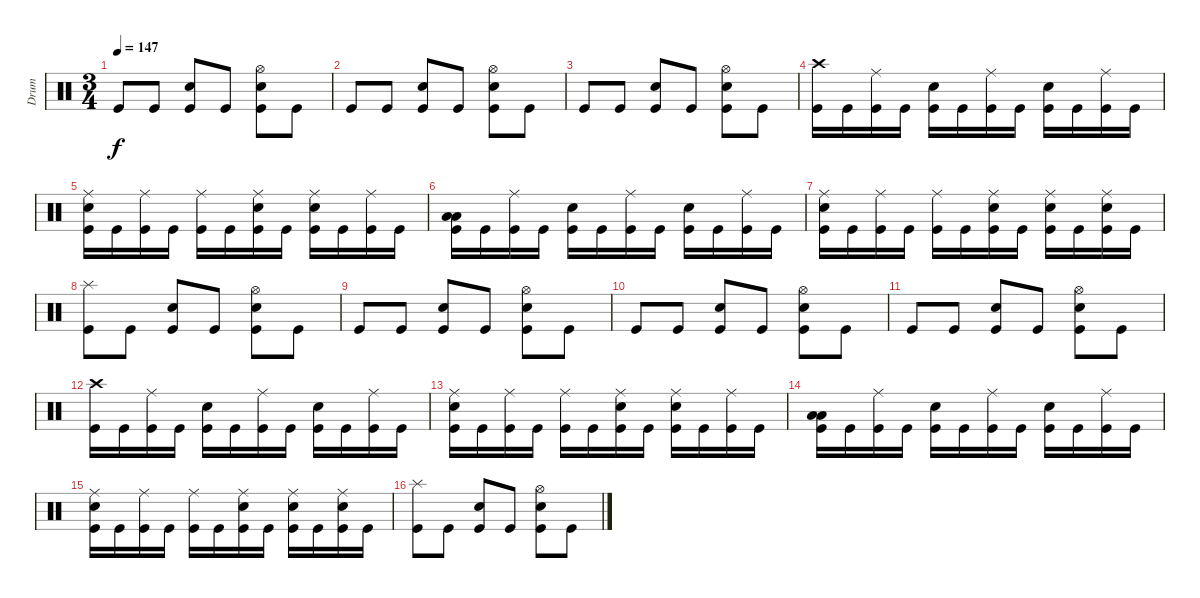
\track ("Drum" "Drum") {instrument percussion}
\staff {score}
\articulation defaults
\ts (3 4)
\tempo 147
\clef neutral
\ks c "Kick (hit)".8{dy f} "Kick (hit)".8
("Snare (hit) 2" "Kick (hit)").8 "Kick (hit)".8 ("Hi-Hat (open)" "Snare (hit) 2" "Kick (hit)").8 "Kick (hit)".8 |
"Kick (hit)".8 "Kick (hit)".8 ("Snare (hit) 2" "Kick (hit)").8 "Kick (hit)".8 ("Hi-Hat (open)" "Snare (hit) 2" "Kick (hit)").8 "Kick (hit)".8 |
"Kick (hit)".8 "Kick (hit)".8 ("Snare (hit) 2" "Kick (hit)").8 "Kick (hit)".8 ("Hi-Hat (open)" "Snare (hit) 2" "Kick (hit)").8 "Kick (hit)".8 |
("Crash high (hit)" "Kick (hit)").16 "Kick (hit)".16 ("Ride (middle)" "Kick (hit)").16 "Kick (hit)".16 ("Snare (hit) 2" "Kick (hit)").16 "Kick (hit)".16 ("Ride (middle)" "Kick (hit)").16 "Kick (hit)".16 ("Snare (hit) 2" "Kick (hit)").16 "Kick (hit)".16 ("Ride (middle)" "Kick (hit)").16 "Kick (hit)".16 |
("Ride (middle)" "Snare (hit) 2" "Kick (hit)").16 "Kick (hit)".16 ("Ride (middle)" "Kick (hit)").16 "Kick (hit)".16 ("Ride (middle)" "Kick (hit)").16 "Kick (hit)".16 ("Ride (middle)" "Snare (hit) 2" "Kick (hit)").16 "Kick (hit)".16 ("Ride (middle)" "Snare (hit) 2" "Kick (hit)").16 "Kick (hit)".16 ("Ride (middle)" "Kick (hit)").16 "Kick (hit)".16 |
("Low Floor Tom (hit)" "Low Floor Tom (hit)" "Kick (hit)").16 "Kick (hit)".16 ("Ride (middle)" "Kick (hit)").16 "Kick (hit)".16 ("Snare (hit) 2" "Kick (hit)").16 "Kick (hit)".16 ("Ride (middle)" "Kick (hit)").16 "Kick (hit)".16 ("Snare (hit) 2" "Kick (hit)").16 "Kick (hit)".16 ("Ride (middle)" "Kick (hit)").16 "Kick (hit)".16 |
("Ride (middle)" "Snare (hit) 2" "Kick (hit)").16 "Kick (hit)".16 ("Ride (middle)" "Kick (hit)").16 "Kick (hit)".16 ("Ride (middle)" "Kick (hit)").16 "Kick (hit)".16 ("Ride (middle)" "Snare (hit) 2" "Kick (hit)").16 "Kick (hit)".16 ("Ride (middle)" "Snare (hit) 2" "Kick (hit)").16 "Kick (hit)".16 ("Ride (middle)" "Snare (hit) 2" "Kick (hit)").16 "Kick (hit)".16 |
("Splash (hit)" "Kick (hit)").8 "Kick (hit)".8 ("Snare (hit) 2" "Kick (hit)").8 "Kick (hit)".8 ("Hi-Hat (open)" "Snare (hit) 2" "Kick (hit)").8 "Kick (hit)".8 |
"Kick (hit)".8 "Kick (hit)".8 ("Snare (hit) 2" "Kick (hit)").8 "Kick (hit)".8 ("Hi-Hat (open)" "Snare (hit) 2" "Kick (hit)").8 "Kick (hit)".8 |
"Kick (hit)".8 "Kick (hit)".8 ("Snare (hit) 2" "Kick (hit)").8 "Kick (hit)".8 ("Hi-Hat (open)" "Snare (hit) 2" "Kick (hit)").8 "Kick (hit)".8 |
"Kick (hit)".8 "Kick (hit)".8 ("Snare (hit) 2" "Kick (hit)").8 "Kick (hit)".8 ("Hi-Hat (open)" "Snare (hit) 2" "Kick (hit)").8 "Kick (hit)".8 |
("Crash high (hit)" "Kick (hit)").16 "Kick (hit)".16 ("Ride (middle)" "Kick (hit)").16 "Kick (hit)".16 ("Snare (hit) 2" "Kick (hit)").16 "Kick (hit)".16 ("Ride (middle)" "Kick (hit)").16 "Kick (hit)".16 ("Snare (hit) 2" "Kick (hit)").16 "Kick (hit)".16 ("Ride (middle)" "Kick (hit)").16 "Kick (hit)".16 |
("Ride (middle)" "Snare (hit) 2" "Kick (hit)").16 "Kick (hit)".16 ("Ride (middle)" "Kick (hit)").16 "Kick (hit)".16 ("Ride (middle)" "Kick (hit)").16 "Kick (hit)".16 ("Ride (middle)" "Snare (hit) 2" "Kick (hit)").16 "Kick (hit)".16 ("Ride (middle)" "Snare (hit) 2" "Kick (hit)").16 "Kick (hit)".16 ("Ride (middle)" "Kick (hit)").16 "Kick (hit)".16 |
("Low Floor Tom (hit)" "Low Floor Tom (hit)" "Kick (hit)").16 "Kick (hit)".16 ("Ride (middle)" "Kick (hit)").16 "Kick (hit)".16 ("Snare (hit) 2" "Kick (hit)").16 "Kick (hit)".16 ("Ride (middle)" "Kick (hit)").16 "Kick (hit)".16 ("Snare (hit) 2" "Kick (hit)").16 "Kick (hit)".16 ("Ride (middle)" "Kick (hit)").16 "Kick (hit)".16 |
("Ride (middle)" "Snare (hit) 2" "Kick (hit)").16 "Kick (hit)".16 ("Ride (middle)" "Kick (hit)").16 "Kick (hit)".16 ("Ride (middle)" "Kick (hit)").16 "Kick (hit)".16 ("Ride (middle)" "Snare (hit) 2" "Kick (hit)").16 "Kick (hit)".16 ("Ride (middle)" "Snare (hit) 2" "Kick (hit)").16 "Kick (hit)".16 ("Ride (middle)" "Snare (hit) 2" "Kick (hit)").16 "Kick (hit)".16 |
("Splash (hit)" "Kick (hit)").8 "Kick (hit)".8 ("Snare (hit) 2" "Kick (hit)").8 "Kick (hit)".8 ("Hi-Hat (open)" "Snare (hit) 2" "Kick (hit)").8 "Kick (hit)".8
